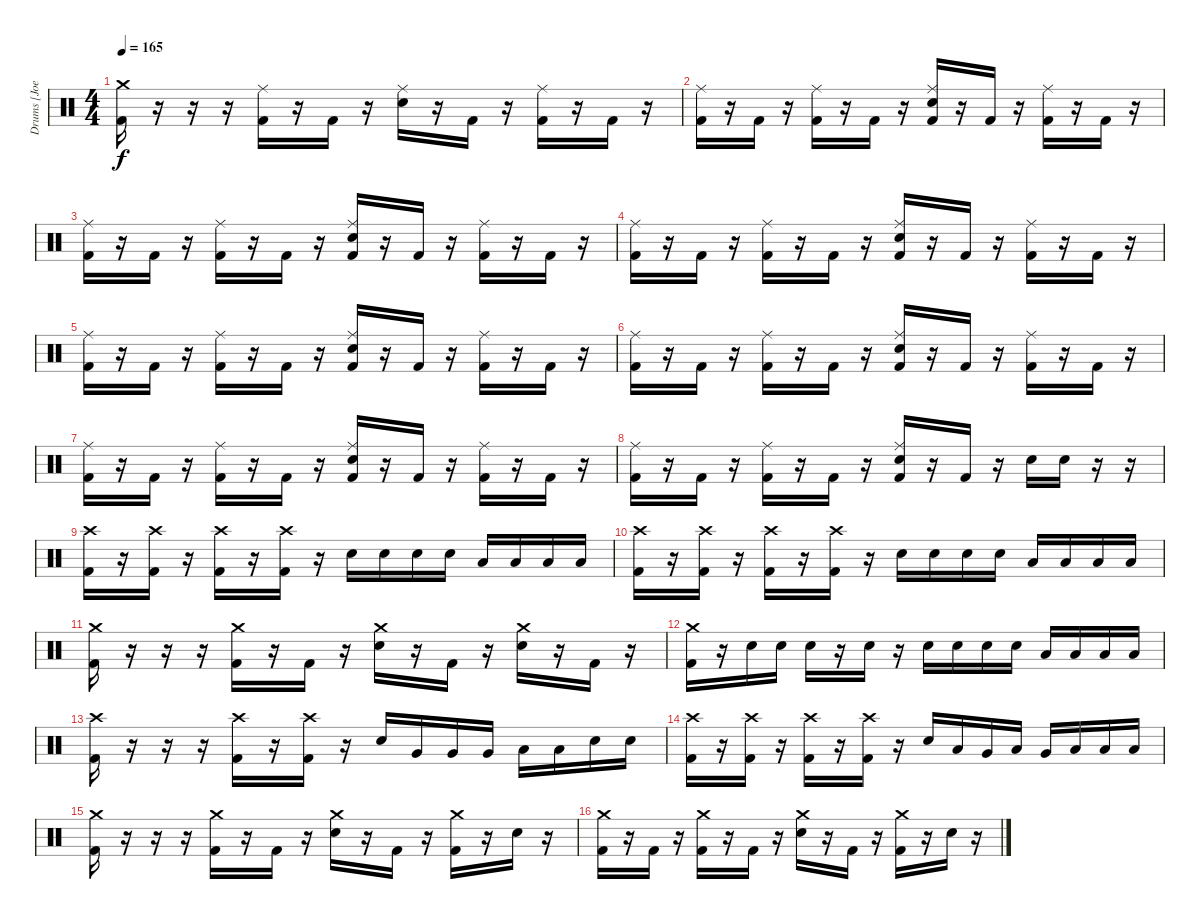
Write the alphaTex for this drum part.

\track ("Drums [Joel Paolucci]" "Drums [Joe") {instrument percussion}
\staff {score}
\articulation defaults
\ts (4 4)
\tempo 165
\clef neutral
\ks c
("Crash medium (hit)" "Kick (hit) 2").16{dy f} r.16 r.16 r.16 ("Ride (middle)" "Kick (hit) 2").16 r.16 "Kick (hit) 2".16 r.16 ("Ride (middle)" "Electric Snare (hit)").16 r.16 "Kick (hit) 2".16 r.16 ("Ride (middle)" "Kick (hit) 2").16 r.16 "Kick (hit) 2".16 r.16 |
("Ride (middle)" "Kick (hit) 2").16 r.16 "Kick (hit) 2".16 r.16 ("Ride (middle)" "Kick (hit) 2").16 r.16 "Kick (hit) 2".16 r.16 ("Ride (middle)" "Electric Snare (hit)" "Kick (hit) 2").16 r.16 "Kick (hit) 2".16 r.16 ("Ride (middle)" "Kick (hit) 2").16 r.16 "Kick (hit) 2".16 r.16 |
("Ride (middle)" "Kick (hit) 2").16 r.16 "Kick (hit) 2".16 r.16 ("Ride (middle)" "Kick (hit) 2").16 r.16 "Kick (hit) 2".16 r.16 ("Ride (middle)" "Electric Snare (hit)" "Kick (hit) 2").16 r.16 "Kick (hit) 2".16 r.16 ("Ride (middle)" "Kick (hit) 2").16 r.16 "Kick (hit) 2".16 r.16 |
("Ride (middle)" "Kick (hit) 2").16 r.16 "Kick (hit) 2".16 r.16 ("Ride (middle)" "Kick (hit) 2").16 r.16 "Kick (hit) 2".16 r.16 ("Ride (middle)" "Electric Snare (hit)" "Kick (hit) 2").16 r.16 "Kick (hit) 2".16 r.16 ("Ride (middle)" "Kick (hit) 2").16 r.16 "Kick (hit) 2".16 r.16 |
("Ride (middle)" "Kick (hit) 2").16 r.16 "Kick (hit) 2".16 r.16 ("Ride (middle)" "Kick (hit) 2").16 r.16 "Kick (hit) 2".16 r.16 ("Ride (middle)" "Electric Snare (hit)" "Kick (hit) 2").16 r.16 "Kick (hit) 2".16 r.16 ("Ride (middle)" "Kick (hit) 2").16 r.16 "Kick (hit) 2".16 r.16 |
("Ride (middle)" "Kick (hit) 2").16 r.16 "Kick (hit) 2".16 r.16 ("Ride (middle)" "Kick (hit) 2").16 r.16 "Kick (hit) 2".16 r.16 ("Ride (middle)" "Electric Snare (hit)" "Kick (hit) 2").16 r.16 "Kick (hit) 2".16 r.16 ("Ride (middle)" "Kick (hit) 2").16 r.16 "Kick (hit) 2".16 r.16 |
("Ride (middle)" "Kick (hit) 2").16 r.16 "Kick (hit) 2".16 r.16 ("Ride (middle)" "Kick (hit) 2").16 r.16 "Kick (hit) 2".16 r.16 ("Ride (middle)" "Electric Snare (hit)" "Kick (hit) 2").16 r.16 "Kick (hit) 2".16 r.16 ("Ride (middle)" "Kick (hit) 2").16 r.16 "Kick (hit) 2".16 r.16 |
("Ride (middle)" "Kick (hit) 2").16 r.16 "Kick (hit) 2".16 r.16 ("Ride (middle)" "Kick (hit) 2").16 r.16 "Kick (hit) 2".16 r.16 ("Ride (middle)" "Electric Snare (hit)" "Kick (hit) 2").16 r.16 "Kick (hit) 2".16 r.16 "Electric Snare (hit)".16 "Electric Snare (hit)".16 r.16 r.16 |
("Crash high (hit)" "Kick (hit) 2").16 r.16 ("Crash high (hit)" "Kick (hit) 2").16 r.16 ("Crash high (hit)" "Kick (hit) 2").16 r.16 ("Crash high (hit)" "Kick (hit) 2").16 r.16 "Electric Snare (hit)".16 "Electric Snare (hit)".16 "Electric Snare (hit)".16 "Electric Snare (hit)".16 "Low Floor Tom (hit)".16 "Low Floor Tom (hit)".16 "Low Floor Tom (hit)".16 "Low Floor Tom (hit)".16 |
("Crash high (hit)" "Kick (hit) 2").16 r.16 ("Crash high (hit)" "Kick (hit) 2").16 r.16 ("Crash high (hit)" "Kick (hit) 2").16 r.16 ("Crash high (hit)" "Kick (hit) 2").16 r.16 "Electric Snare (hit)".16 "Electric Snare (hit)".16 "Electric Snare (hit)".16 "Electric Snare (hit)".16 "Low Floor Tom (hit)".16 "Low Floor Tom (hit)".16 "Low Floor Tom (hit)".16 "Low Floor Tom (hit)".16 |
("Crash medium (hit)" "Kick (hit) 2").16 r.16 r.16 r.16 ("Crash medium (hit)" "Kick (hit) 2").16 r.16 "Kick (hit) 2".16 r.16 ("Crash medium (hit)" "Electric Snare (hit)").16 r.16 "Kick (hit) 2".16 r.16 ("Crash medium (hit)" "Electric Snare (hit)").16 r.16 "Kick (hit) 2".16 r.16 |
("Crash medium (hit)" "Kick (hit) 2").16 r.16 "Electric Snare (hit)".16 "Electric Snare (hit)".16 "Electric Snare (hit)".16 r.16 "Electric Snare (hit)".16 r.16 "Electric Snare (hit)".16 "Electric Snare (hit)".16 "Electric Snare (hit)".16 "Electric Snare (hit)".16 "Low Floor Tom (hit)".16 "Low Floor Tom (hit)".16 "Low Floor Tom (hit)".16 "Low Floor Tom (hit)".16 |
("Crash high (hit)" "Kick (hit) 2").16 r.16 r.16 r.16 ("Crash high (hit)" "Kick (hit) 2").16 r.16 ("Crash high (hit)" "Kick (hit) 2").16 r.16 "Electric Snare (hit)".16 "Very Low Tom (hit)".16 "Very Low Tom (hit)".16 "Very Low Tom (hit)".16 "Low Floor Tom (hit)".16 "Low Floor Tom (hit)".16 "Electric Snare (hit)".16 "Electric Snare (hit)".16 |
("Crash high (hit)" "Kick (hit) 2").16 r.16 ("Crash high (hit)" "Kick (hit) 2").16 r.16 ("Crash high (hit)" "Kick (hit) 2").16 r.16 ("Crash high (hit)" "Kick (hit) 2").16 r.16 "Electric Snare (hit)".16 "Low Floor Tom (hit)".16 "Very Low Tom (hit)".16 "Low Floor Tom (hit)".16 "Very Low Tom (hit)".16 "Low Floor Tom (hit)".16 "Low Floor Tom (hit)".16 "Low Floor Tom (hit)".16 |
("Crash medium (hit)" "Kick (hit) 2").16 r.16 r.16 r.16 ("Crash medium (hit)" "Kick (hit) 2").16 r.16 "Kick (hit) 2".16 r.16 ("Crash medium (hit)" "Electric Snare (hit)").16 r.16 "Kick (hit) 2".16 r.16 ("Crash medium (hit)" "Kick (hit) 2").16 r.16 "Electric Snare (hit)".16 r.16 |
("Crash medium (hit)" "Kick (hit) 2").16 r.16 "Kick (hit) 2".16 r.16 ("Crash medium (hit)" "Kick (hit) 2").16 r.16 "Kick (hit) 2".16 r.16 ("Crash medium (hit)" "Electric Snare (hit)").16 r.16 "Kick (hit) 2".16 r.16 ("Crash medium (hit)" "Kick (hit) 2").16 r.16 "Electric Snare (hit)".16 r.16
